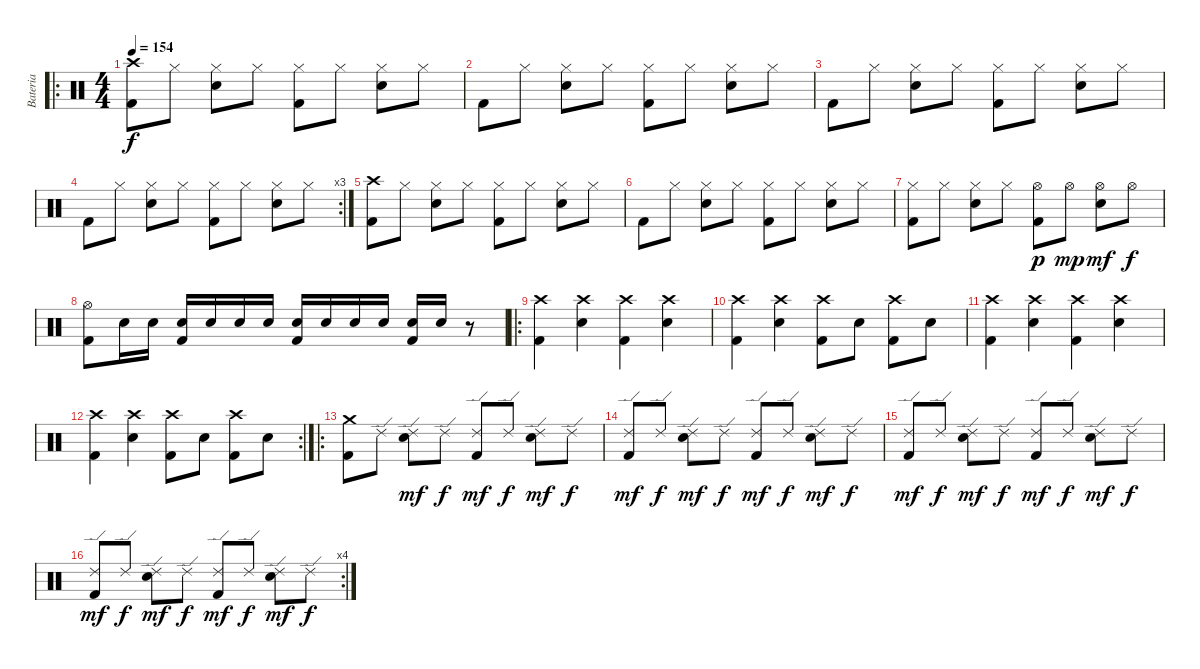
\track ("Bateria" "Bateria") {instrument percussion}
\staff {score}
\articulation defaults
\ro
\ts (4 4)
\tempo 154
\clef neutral
\ks c
("Kick (hit) 2" "Crash high (hit)").8{dy f} "Hi-Hat (closed)".8 ("Hi-Hat (closed)" "Snare (hit) 2").8 "Hi-Hat (closed)".8 ("Kick (hit) 2" "Hi-Hat (closed)").8 "Hi-Hat (closed)".8 ("Hi-Hat (closed)" "Snare (hit) 2").8 "Hi-Hat (closed)".8 |
"Kick (hit) 2".8 "Hi-Hat (closed)".8 ("Hi-Hat (closed)" "Snare (hit) 2").8 "Hi-Hat (closed)".8 ("Kick (hit) 2" "Hi-Hat (closed)").8 "Hi-Hat (closed)".8 ("Hi-Hat (closed)" "Snare (hit) 2").8 "Hi-Hat (closed)".8 |
"Kick (hit) 2".8 "Hi-Hat (closed)".8 ("Hi-Hat (closed)" "Snare (hit) 2").8 "Hi-Hat (closed)".8 ("Kick (hit) 2" "Hi-Hat (closed)").8 "Hi-Hat (closed)".8 ("Hi-Hat (closed)" "Snare (hit) 2").8 "Hi-Hat (closed)".8 |
\rc 3 "Kick (hit) 2".8 "Hi-Hat (closed)".8
("Hi-Hat (closed)" "Snare (hit) 2").8 "Hi-Hat (closed)".8 ("Kick (hit) 2" "Hi-Hat (closed)").8 "Hi-Hat (closed)".8 ("Hi-Hat (closed)" "Snare (hit) 2").8 "Hi-Hat (closed)".8 |
("Kick (hit) 2" "Crash high (hit)").8 "Hi-Hat (closed)".8 ("Hi-Hat (closed)" "Snare (hit) 2").8 "Hi-Hat (closed)".8 ("Kick (hit) 2" "Hi-Hat (closed)").8 "Hi-Hat (closed)".8 ("Hi-Hat (closed)" "Snare (hit) 2").8 "Hi-Hat (closed)".8 |
"Kick (hit) 2".8 "Hi-Hat (closed)".8 ("Hi-Hat (closed)" "Snare (hit) 2").8 "Hi-Hat (closed)".8 ("Kick (hit) 2" "Hi-Hat (closed)").8 "Hi-Hat (closed)".8 ("Hi-Hat (closed)" "Snare (hit) 2").8 "Hi-Hat (closed)".8 |
("Kick (hit) 2" "Hi-Hat (closed)").8 "Hi-Hat (closed)".8 ("Hi-Hat (closed)" "Snare (hit) 2").8 "Hi-Hat (closed)".8 ("Kick (hit) 2" "Hi-Hat (open)").8{dy p} "Hi-Hat (open)".8{dy mp} ("Hi-Hat (open)" "Snare (hit) 2").8{dy mf} "Hi-Hat (open)".8{dy f} |
("Kick (hit) 2" "Hi-Hat (open)").8 "Snare (hit) 2".16 "Snare (hit) 2".16 ("Kick (hit) 2" "Snare (hit) 2").16 "Snare (hit) 2".16 "Snare (hit) 2".16 "Snare (hit) 2".16 ("Kick (hit) 2" "Snare (hit) 2").16 "Snare (hit) 2".16 "Snare (hit) 2".16 "Snare (hit) 2".16 ("Kick (hit) 2" "Snare (hit) 2").16 "Snare (hit) 2".16 r.8 |
\ro
("Kick (hit) 2" "Crash high (hit)").4 ("Crash high (hit)" "Snare (hit) 2").4 ("Kick (hit) 2" "Crash high (hit)").4 ("Crash high (hit)" "Snare (hit) 2").4 |
("Kick (hit) 2" "Crash high (hit)").4 ("Crash high (hit)" "Snare (hit) 2").4 ("Kick (hit) 2" "Crash high (hit)").8 "Snare (hit) 2".8 ("Kick (hit) 2" "Crash high (hit)").8 "Snare (hit) 2".8 |
("Kick (hit) 2" "Crash high (hit)").4 ("Crash high (hit)" "Snare (hit) 2").4 ("Kick (hit) 2" "Crash high (hit)").4 ("Crash high (hit)" "Snare (hit) 2").4 |
\rc 2
("Kick (hit) 2" "Crash high (hit)").4 ("Crash high (hit)" "Snare (hit) 2").4 ("Kick (hit) 2" "Crash high (hit)").8 "Snare (hit) 2".8 ("Kick (hit) 2" "Crash high (hit)").8 "Snare (hit) 2".8 |
\ro
("Kick (hit) 2" "Crash medium (hit)").8 "Ride (edge) 2".8 ("Ride (edge) 2" "Snare (hit) 2").8{dy mf} "Ride (edge) 2".8{dy f} ("Kick (hit) 2" "Ride (edge) 2").8{dy mf} "Ride (edge) 2".8{dy f} ("Ride (edge) 2" "Snare (hit) 2").8{dy mf} "Ride (edge) 2".8{dy f} |
("Kick (hit) 2" "Ride (edge) 2").8{dy mf} "Ride (edge) 2".8{dy f} ("Ride (edge) 2" "Snare (hit) 2").8{dy mf} "Ride (edge) 2".8{dy f} ("Kick (hit) 2" "Ride (edge) 2").8{dy mf} "Ride (edge) 2".8{dy f} ("Ride (edge) 2" "Snare (hit) 2").8{dy mf} "Ride (edge) 2".8{dy f} |
("Kick (hit) 2" "Ride (edge) 2").8{dy mf} "Ride (edge) 2".8{dy f} ("Ride (edge) 2" "Snare (hit) 2").8{dy mf} "Ride (edge) 2".8{dy f} ("Kick (hit) 2" "Ride (edge) 2").8{dy mf} "Ride (edge) 2".8{dy f} ("Ride (edge) 2" "Snare (hit) 2").8{dy mf} "Ride (edge) 2".8{dy f} |
\rc 4
("Kick (hit) 2" "Ride (edge) 2").8{dy mf} "Ride (edge) 2".8{dy f} ("Ride (edge) 2" "Snare (hit) 2").8{dy mf} "Ride (edge) 2".8{dy f} ("Kick (hit) 2" "Ride (edge) 2").8{dy mf} "Ride (edge) 2".8{dy f} ("Ride (edge) 2" "Snare (hit) 2").8{dy mf} "Ride (edge) 2".8{dy f}
